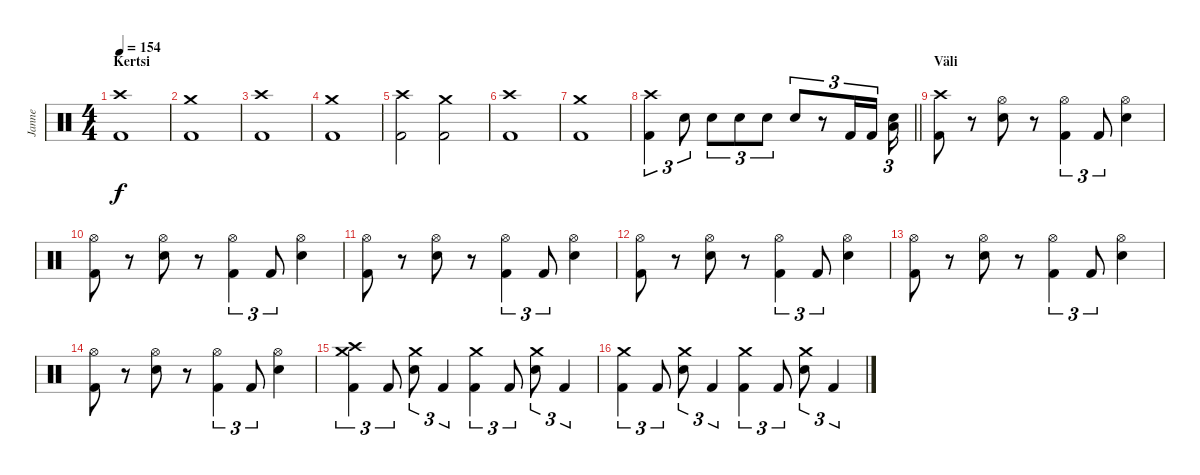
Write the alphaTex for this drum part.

\track ("Janne" "Janne") {instrument percussion}
\staff {score}
\articulation defaults
\ts (4 4)
\section ("" "Kertsi")
\tempo 154
\clef neutral
\ks c
("Crash high (hit)" "Kick (hit) 2").1{dy f} |
("Crash medium (hit)" "Kick (hit) 2").1 |
("Crash high (hit)" "Kick (hit) 2").1 |
("Crash medium (hit)" "Kick (hit) 2").1 |
("Crash high (hit)" "Kick (hit) 2").2 ("Crash medium (hit)" "Kick (hit) 2").2 |
("Crash high (hit)" "Kick (hit) 2").1 |
("Crash medium (hit)" "Kick (hit) 2").1 |
\barLineRight lightlight
("Crash high (hit)" "Kick (hit) 2").4{tu (3 2)} "Electric Snare (hit)".8{tu (3 2)} "Electric Snare (hit)".8{tu (3 2)} "Electric Snare (hit)".8{tu (3 2)} "Electric Snare (hit)".8{tu (3 2)} "Electric Snare (hit)".8{tu (3 2)} r.8{tu (3 2)} "Kick (hit) 2".16{tu (3 2)} "Kick (hit) 2".16{tu (3 2)} ("Electric Snare (hit)" "Low Floor Tom (hit)").16{tu (3 2)} |
\section ("" "Väli")
("Crash high (hit)" "Kick (hit) 2").8 r.8 ("Hi-Hat (open)" "Electric Snare (hit)").8 r.8 ("Hi-Hat (open)" "Kick (hit) 2").4{tu (3 2)} "Kick (hit) 2".8{tu (3 2)} ("Hi-Hat (open)" "Electric Snare (hit)").4 |
("Hi-Hat (open)" "Kick (hit) 2").8 r.8 ("Hi-Hat (open)" "Electric Snare (hit)").8 r.8 ("Hi-Hat (open)" "Kick (hit) 2").4{tu (3 2)} "Kick (hit) 2".8{tu (3 2)} ("Hi-Hat (open)" "Electric Snare (hit)").4 |
("Hi-Hat (open)" "Kick (hit) 2").8 r.8 ("Hi-Hat (open)" "Electric Snare (hit)").8 r.8 ("Hi-Hat (open)" "Kick (hit) 2").4{tu (3 2)} "Kick (hit) 2".8{tu (3 2)} ("Hi-Hat (open)" "Electric Snare (hit)").4 |
("Hi-Hat (open)" "Kick (hit) 2").8 r.8 ("Hi-Hat (open)" "Electric Snare (hit)").8 r.8 ("Hi-Hat (open)" "Kick (hit) 2").4{tu (3 2)} "Kick (hit) 2".8{tu (3 2)} ("Hi-Hat (open)" "Electric Snare (hit)").4 |
("Hi-Hat (open)" "Kick (hit) 2").8 r.8 ("Hi-Hat (open)" "Electric Snare (hit)").8 r.8 ("Hi-Hat (open)" "Kick (hit) 2").4{tu (3 2)} "Kick (hit) 2".8{tu (3 2)} ("Hi-Hat (open)" "Electric Snare (hit)").4 |
("Hi-Hat (open)" "Kick (hit) 2").8 r.8 ("Hi-Hat (open)" "Electric Snare (hit)").8 r.8 ("Hi-Hat (open)" "Kick (hit) 2").4{tu (3 2)} "Kick (hit) 2".8{tu (3 2)} ("Hi-Hat (open)" "Electric Snare (hit)").4 |
("Crash high (hit)" "Crash medium (hit)" "Kick (hit) 2").4{tu (3 2)} "Kick (hit) 2".8{tu (3 2)} ("Crash medium (hit)" "Electric Snare (hit)").8{tu (3 2)} "Kick (hit) 2".4{tu (3 2)} ("Crash medium (hit)" "Kick (hit) 2").4{tu (3 2)} "Kick (hit) 2".8{tu (3 2)} ("Crash medium (hit)" "Electric Snare (hit)").8{tu (3 2)} "Kick (hit) 2".4{tu (3 2)} |
("Crash medium (hit)" "Kick (hit) 2").4{tu (3 2)} "Kick (hit) 2".8{tu (3 2)} ("Crash medium (hit)" "Electric Snare (hit)").8{tu (3 2)} "Kick (hit) 2".4{tu (3 2)} ("Crash medium (hit)" "Kick (hit) 2").4{tu (3 2)} "Kick (hit) 2".8{tu (3 2)} ("Crash medium (hit)" "Electric Snare (hit)").8{tu (3 2)} "Kick (hit) 2".4{tu (3 2)}
